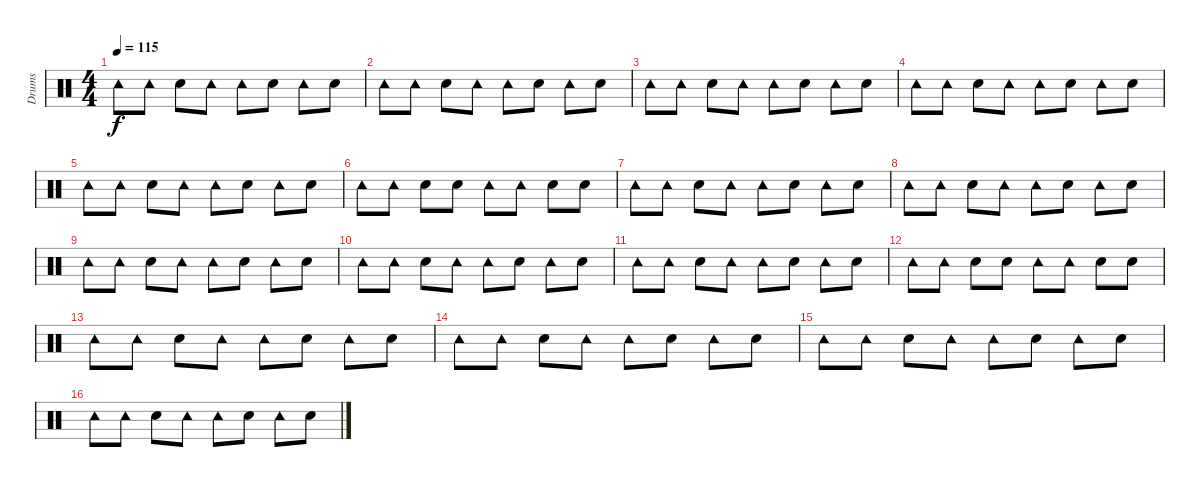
\track ("Drums" "Drums") {instrument percussion}
\staff {score}
\articulation defaults
\ts (4 4)
\tempo 115
\clef neutral
\ks c "Tambourine (hit)".8{dy f} "Tambourine (hit)".8 "Electric Snare (hit)".8 "Tambourine (hit)".8 "Tambourine (hit)".8 "Electric Snare (hit)".8 "Tambourine (hit)".8 "Electric Snare (hit)".8
|
"Tambourine (hit)".8 "Tambourine (hit)".8 "Electric Snare (hit)".8 "Tambourine (hit)".8 "Tambourine (hit)".8 "Electric Snare (hit)".8 "Tambourine (hit)".8 "Electric Snare (hit)".8 |
"Tambourine (hit)".8 "Tambourine (hit)".8 "Electric Snare (hit)".8 "Tambourine (hit)".8 "Tambourine (hit)".8 "Electric Snare (hit)".8 "Tambourine (hit)".8 "Electric Snare (hit)".8 |
"Tambourine (hit)".8 "Tambourine (hit)".8 "Electric Snare (hit)".8 "Tambourine (hit)".8 "Tambourine (hit)".8 "Electric Snare (hit)".8 "Tambourine (hit)".8 "Electric Snare (hit)".8 |
"Tambourine (hit)".8 "Tambourine (hit)".8 "Electric Snare (hit)".8 "Tambourine (hit)".8 "Tambourine (hit)".8 "Electric Snare (hit)".8 "Tambourine (hit)".8 "Electric Snare (hit)".8 |
"Tambourine (hit)".8 "Tambourine (hit)".8 "Snare (hit) 2".8 "Electric Snare (hit)".8 "Tambourine (hit)".8 "Tambourine (hit)".8 "Electric Snare (hit)".8 "Snare (hit) 2".8 |
"Tambourine (hit)".8 "Tambourine (hit)".8 "Electric Snare (hit)".8 "Tambourine (hit)".8 "Tambourine (hit)".8 "Electric Snare (hit)".8 "Tambourine (hit)".8 "Electric Snare (hit)".8 |
"Tambourine (hit)".8 "Tambourine (hit)".8 "Electric Snare (hit)".8 "Tambourine (hit)".8 "Tambourine (hit)".8 "Electric Snare (hit)".8 "Tambourine (hit)".8 "Electric Snare (hit)".8 |
"Tambourine (hit)".8 "Tambourine (hit)".8 "Electric Snare (hit)".8 "Tambourine (hit)".8 "Tambourine (hit)".8 "Electric Snare (hit)".8 "Tambourine (hit)".8 "Electric Snare (hit)".8 |
"Tambourine (hit)".8 "Tambourine (hit)".8 "Electric Snare (hit)".8 "Tambourine (hit)".8 "Tambourine (hit)".8 "Electric Snare (hit)".8 "Tambourine (hit)".8 "Electric Snare (hit)".8 |
"Tambourine (hit)".8 "Tambourine (hit)".8 "Electric Snare (hit)".8 "Tambourine (hit)".8 "Tambourine (hit)".8 "Electric Snare (hit)".8 "Tambourine (hit)".8 "Electric Snare (hit)".8 |
"Tambourine (hit)".8 "Tambourine (hit)".8 "Snare (hit) 2".8 "Electric Snare (hit)".8 "Tambourine (hit)".8 "Tambourine (hit)".8 "Electric Snare (hit)".8 "Snare (hit) 2".8 |
"Tambourine (hit)".8 "Tambourine (hit)".8 "Electric Snare (hit)".8 "Tambourine (hit)".8 "Tambourine (hit)".8 "Electric Snare (hit)".8 "Tambourine (hit)".8 "Electric Snare (hit)".8 |
"Tambourine (hit)".8 "Tambourine (hit)".8 "Electric Snare (hit)".8 "Tambourine (hit)".8 "Tambourine (hit)".8 "Electric Snare (hit)".8 "Tambourine (hit)".8 "Electric Snare (hit)".8 |
"Tambourine (hit)".8 "Tambourine (hit)".8 "Electric Snare (hit)".8 "Tambourine (hit)".8 "Tambourine (hit)".8 "Electric Snare (hit)".8 "Tambourine (hit)".8 "Electric Snare (hit)".8 |
"Tambourine (hit)".8 "Tambourine (hit)".8 "Electric Snare (hit)".8 "Tambourine (hit)".8 "Tambourine (hit)".8 "Electric Snare (hit)".8 "Tambourine (hit)".8 "Electric Snare (hit)".8
